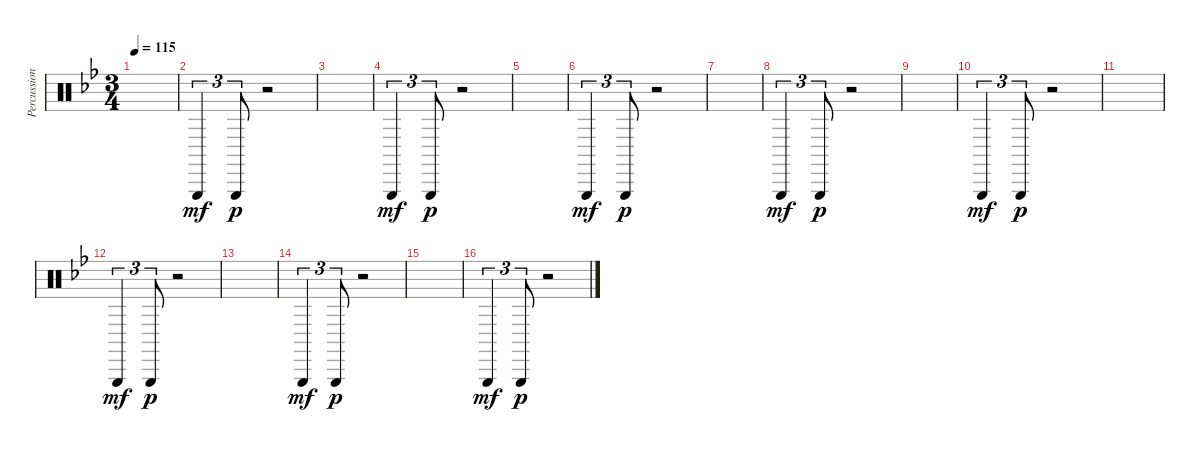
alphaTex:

\track ("Percussion" "Percussion") {instrument percussion}
\staff {score}
\articulation defaults
\ts (3 4)
\tempo 115
\clef neutral
\ks gminor
|
"Triangle (hit)".4{tu (3 2) dy mf} "Triangle (hit)".8{tu (3 2) dy p} r.2 |
|
"Triangle (hit)".4{tu (3 2) dy mf} "Triangle (hit)".8{tu (3 2) dy p} r.2 |
|
"Triangle (hit)".4{tu (3 2) dy mf} "Triangle (hit)".8{tu (3 2) dy p} r.2 |
|
"Triangle (hit)".4{tu (3 2) dy mf} "Triangle (hit)".8{tu (3 2) dy p} r.2 |
|
"Triangle (hit)".4{tu (3 2) dy mf} "Triangle (hit)".8{tu (3 2) dy p} r.2 |
|
"Triangle (hit)".4{tu (3 2) dy mf} "Triangle (hit)".8{tu (3 2) dy p} r.2 |
|
"Triangle (hit)".4{tu (3 2) dy mf} "Triangle (hit)".8{tu (3 2) dy p} r.2 |
|
"Triangle (hit)".4{tu (3 2) dy mf} "Triangle (hit)".8{tu (3 2) dy p} r.2
